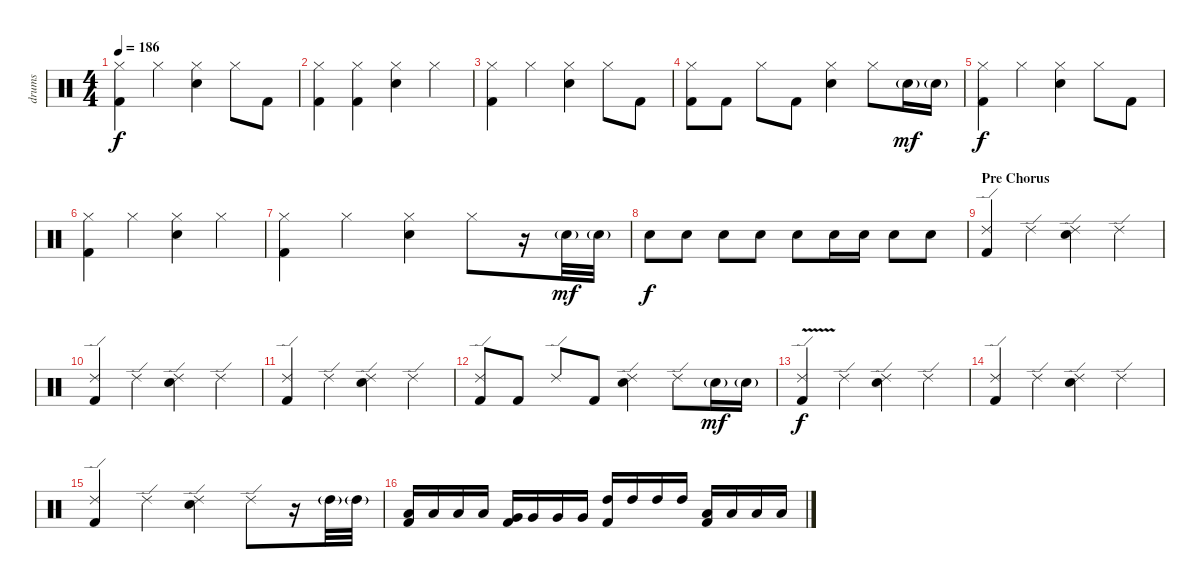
\track ("drums" "drums") {instrument percussion}
\staff {score}
\articulation defaults
\ts (4 4)
\tempo 186
\clef neutral
\ks c
("Hi-Hat (closed)" "Kick (hit) 2").4{dy f} "Hi-Hat (closed)".4 ("Hi-Hat (closed)" "Electric Snare (hit)").4 "Hi-Hat (closed)".8 "Kick (hit) 2".8 |
("Hi-Hat (closed)" "Kick (hit) 2").4 ("Hi-Hat (closed)" "Kick (hit) 2").4 ("Hi-Hat (closed)" "Electric Snare (hit)").4 "Hi-Hat (closed)".4 |
("Hi-Hat (closed)" "Kick (hit) 2").4 "Hi-Hat (closed)".4 ("Hi-Hat (closed)" "Electric Snare (hit)").4 "Hi-Hat (closed)".8 "Kick (hit) 2".8 |
("Hi-Hat (closed)" "Kick (hit) 2").8 "Kick (hit) 2".8 "Hi-Hat (closed)".8 "Kick (hit) 2".8 ("Hi-Hat (closed)" "Electric Snare (hit)").4 "Hi-Hat (closed)".8 "Electric Snare (hit)"{g}.16{dy mf} "Electric Snare (hit)"{g}.16 |
("Hi-Hat (closed)" "Kick (hit) 2").4{dy f} "Hi-Hat (closed)".4 ("Hi-Hat (closed)" "Electric Snare (hit)").4 "Hi-Hat (closed)".8 "Kick (hit) 2".8 |
("Hi-Hat (closed)" "Kick (hit) 2").4 "Hi-Hat (closed)".4 ("Hi-Hat (closed)" "Electric Snare (hit)").4 "Hi-Hat (closed)".4 |
("Hi-Hat (closed)" "Kick (hit) 2").4 "Hi-Hat (closed)".4 ("Hi-Hat (closed)" "Electric Snare (hit)").4 "Hi-Hat (closed)".8 r.16 "Electric Snare (hit)"{g}.32{dy mf} "Electric Snare (hit)"{g}.32 |
"Electric Snare (hit)".8{dy f} "Electric Snare (hit)".8 "Electric Snare (hit)".8 "Electric Snare (hit)".8 "Electric Snare (hit)".8 "Electric Snare (hit)".16 "Electric Snare (hit)".16 "Electric Snare (hit)".8 "Electric Snare (hit)".8 |
\section ("" "Pre Chorus")
("Ride (edge) 2" "Kick (hit) 2").4 "Ride (edge) 2".4 ("Ride (edge) 2" "Electric Snare (hit)").4 "Ride (edge) 2".4 |
("Ride (edge) 2" "Kick (hit) 2").4 "Ride (edge) 2".4 ("Ride (edge) 2" "Electric Snare (hit)").4 "Ride (edge) 2".4 |
("Ride (edge) 2" "Kick (hit) 2").4 "Ride (edge) 2".4 ("Ride (edge) 2" "Electric Snare (hit)").4 "Ride (edge) 2".4 |
("Ride (edge) 2" "Kick (hit) 2").8 "Kick (hit) 2".8 "Ride (edge) 2".8 "Kick (hit) 2".8 ("Ride (edge) 2" "Electric Snare (hit)").4 "Ride (edge) 2".8 "Electric Snare (hit)"{g}.16{dy mf} "Electric Snare (hit)"{g}.16 |
("Ride (edge) 2"{v} "Kick (hit) 2").4{dy f} "Ride (edge) 2".4 ("Ride (edge) 2" "Electric Snare (hit)").4 "Ride (edge) 2".4 |
("Ride (edge) 2" "Kick (hit) 2").4 "Ride (edge) 2".4 ("Ride (edge) 2" "Electric Snare (hit)").4 "Ride (edge) 2".4 |
("Ride (edge) 2" "Kick (hit) 2").4 "Ride (edge) 2".4 ("Ride (edge) 2" "Electric Snare (hit)").4 "Ride (edge) 2".8 r.16 "High Tom (hit)"{g}.32 "High Tom (hit)"{g}.32 |
("Low Tom (hit)" "Kick (hit) 2").16 "Low Tom (hit)".16 "Low Tom (hit)".16 "Low Tom (hit)".16 ("Very Low Tom (hit)" "Kick (hit) 2").16 "Very Low Tom (hit)".16 "Very Low Tom (hit)".16 "Very Low Tom (hit)".16 ("High Tom (hit)" "Kick (hit) 2").16 "High Tom (hit)".16 "High Tom (hit)".16 "High Tom (hit)".16 ("Low Tom (hit)" "Kick (hit) 2").16 "Low Tom (hit)".16 "Low Tom (hit)".16 "Low Tom (hit)".16
